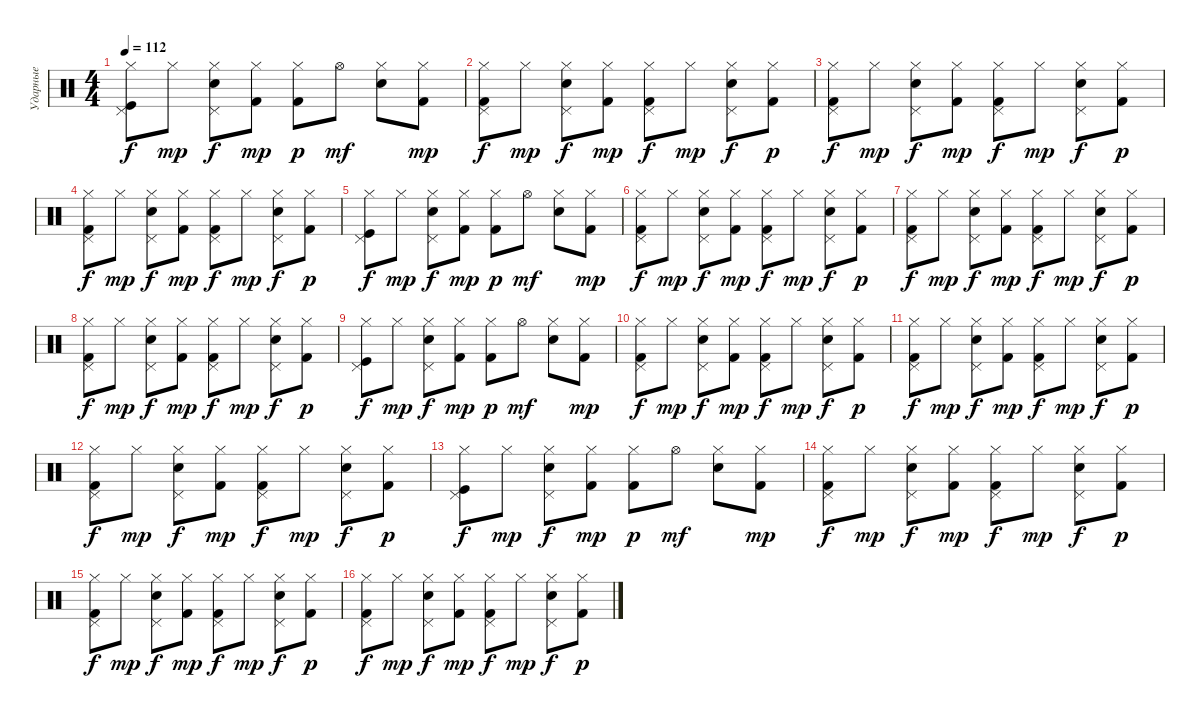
\track ("Ударные" "Ударные") {instrument percussion}
\staff {score}
\articulation defaults
\ts (4 4)
\tempo 112
\clef neutral
\ks c
("Pedal Hi-Hat (hit)" "Hi-Hat (closed)" "Kick (hit)").8{dy f} "Hi-Hat (closed)".8{dy mp} ("Pedal Hi-Hat (hit)" "Hi-Hat (closed)" "Electric Snare (hit)").8{dy f} ("Hi-Hat (closed)" "Kick (hit) 2").8{dy mp} ("Hi-Hat (closed)" "Kick (hit) 2").8{dy p} "Hi-Hat (open)".8{dy mf} ("Hi-Hat (closed)" "Electric Snare (hit)").8 ("Hi-Hat (closed)" "Kick (hit) 2").8{dy mp} |
("Pedal Hi-Hat (hit)" "Hi-Hat (closed)" "Kick (hit) 2").8{dy f} "Hi-Hat (closed)".8{dy mp} ("Pedal Hi-Hat (hit)" "Hi-Hat (closed)" "Electric Snare (hit)").8{dy f} ("Hi-Hat (closed)" "Kick (hit) 2").8{dy mp} ("Pedal Hi-Hat (hit)" "Hi-Hat (closed)" "Kick (hit) 2").8{dy f} "Hi-Hat (closed)".8{dy mp} ("Pedal Hi-Hat (hit)" "Hi-Hat (closed)" "Electric Snare (hit)").8{dy f} ("Hi-Hat (closed)" "Kick (hit) 2").8{dy p} |
("Pedal Hi-Hat (hit)" "Hi-Hat (closed)" "Kick (hit) 2").8{dy f} "Hi-Hat (closed)".8{dy mp} ("Pedal Hi-Hat (hit)" "Hi-Hat (closed)" "Electric Snare (hit)").8{dy f} ("Hi-Hat (closed)" "Kick (hit) 2").8{dy mp} ("Pedal Hi-Hat (hit)" "Hi-Hat (closed)" "Kick (hit) 2").8{dy f} "Hi-Hat (closed)".8{dy mp} ("Pedal Hi-Hat (hit)" "Hi-Hat (closed)" "Electric Snare (hit)").8{dy f} ("Hi-Hat (closed)" "Kick (hit) 2").8{dy p} |
("Pedal Hi-Hat (hit)" "Hi-Hat (closed)" "Kick (hit) 2").8{dy f} "Hi-Hat (closed)".8{dy mp} ("Pedal Hi-Hat (hit)" "Hi-Hat (closed)" "Electric Snare (hit)").8{dy f} ("Hi-Hat (closed)" "Kick (hit) 2").8{dy mp} ("Pedal Hi-Hat (hit)" "Hi-Hat (closed)" "Kick (hit) 2").8{dy f} "Hi-Hat (closed)".8{dy mp} ("Pedal Hi-Hat (hit)" "Hi-Hat (closed)" "Electric Snare (hit)").8{dy f} ("Hi-Hat (closed)" "Kick (hit) 2").8{dy p} |
("Pedal Hi-Hat (hit)" "Hi-Hat (closed)" "Kick (hit)").8{dy f} "Hi-Hat (closed)".8{dy mp} ("Pedal Hi-Hat (hit)" "Hi-Hat (closed)" "Electric Snare (hit)").8{dy f} ("Hi-Hat (closed)" "Kick (hit) 2").8{dy mp} ("Hi-Hat (closed)" "Kick (hit) 2").8{dy p} "Hi-Hat (open)".8{dy mf} ("Hi-Hat (closed)" "Electric Snare (hit)").8 ("Hi-Hat (closed)" "Kick (hit) 2").8{dy mp} |
("Pedal Hi-Hat (hit)" "Hi-Hat (closed)" "Kick (hit) 2").8{dy f} "Hi-Hat (closed)".8{dy mp} ("Pedal Hi-Hat (hit)" "Hi-Hat (closed)" "Electric Snare (hit)").8{dy f} ("Hi-Hat (closed)" "Kick (hit) 2").8{dy mp} ("Pedal Hi-Hat (hit)" "Hi-Hat (closed)" "Kick (hit) 2").8{dy f} "Hi-Hat (closed)".8{dy mp} ("Pedal Hi-Hat (hit)" "Hi-Hat (closed)" "Electric Snare (hit)").8{dy f} ("Hi-Hat (closed)" "Kick (hit) 2").8{dy p} |
("Pedal Hi-Hat (hit)" "Hi-Hat (closed)" "Kick (hit) 2").8{dy f} "Hi-Hat (closed)".8{dy mp} ("Pedal Hi-Hat (hit)" "Hi-Hat (closed)" "Electric Snare (hit)").8{dy f} ("Hi-Hat (closed)" "Kick (hit) 2").8{dy mp} ("Pedal Hi-Hat (hit)" "Hi-Hat (closed)" "Kick (hit) 2").8{dy f} "Hi-Hat (closed)".8{dy mp} ("Pedal Hi-Hat (hit)" "Hi-Hat (closed)" "Electric Snare (hit)").8{dy f} ("Hi-Hat (closed)" "Kick (hit) 2").8{dy p} |
("Pedal Hi-Hat (hit)" "Hi-Hat (closed)" "Kick (hit) 2").8{dy f} "Hi-Hat (closed)".8{dy mp} ("Pedal Hi-Hat (hit)" "Hi-Hat (closed)" "Electric Snare (hit)").8{dy f} ("Hi-Hat (closed)" "Kick (hit) 2").8{dy mp} ("Pedal Hi-Hat (hit)" "Hi-Hat (closed)" "Kick (hit) 2").8{dy f} "Hi-Hat (closed)".8{dy mp} ("Pedal Hi-Hat (hit)" "Hi-Hat (closed)" "Electric Snare (hit)").8{dy f} ("Hi-Hat (closed)" "Kick (hit) 2").8{dy p} |
("Pedal Hi-Hat (hit)" "Hi-Hat (closed)" "Kick (hit)").8{dy f} "Hi-Hat (closed)".8{dy mp} ("Pedal Hi-Hat (hit)" "Hi-Hat (closed)" "Electric Snare (hit)").8{dy f} ("Hi-Hat (closed)" "Kick (hit) 2").8{dy mp} ("Hi-Hat (closed)" "Kick (hit) 2").8{dy p} "Hi-Hat (open)".8{dy mf} ("Hi-Hat (closed)" "Electric Snare (hit)").8 ("Hi-Hat (closed)" "Kick (hit) 2").8{dy mp} |
("Pedal Hi-Hat (hit)" "Hi-Hat (closed)" "Kick (hit) 2").8{dy f} "Hi-Hat (closed)".8{dy mp} ("Pedal Hi-Hat (hit)" "Hi-Hat (closed)" "Electric Snare (hit)").8{dy f} ("Hi-Hat (closed)" "Kick (hit) 2").8{dy mp} ("Pedal Hi-Hat (hit)" "Hi-Hat (closed)" "Kick (hit) 2").8{dy f} "Hi-Hat (closed)".8{dy mp} ("Pedal Hi-Hat (hit)" "Hi-Hat (closed)" "Electric Snare (hit)").8{dy f} ("Hi-Hat (closed)" "Kick (hit) 2").8{dy p} |
("Pedal Hi-Hat (hit)" "Hi-Hat (closed)" "Kick (hit) 2").8{dy f} "Hi-Hat (closed)".8{dy mp} ("Pedal Hi-Hat (hit)" "Hi-Hat (closed)" "Electric Snare (hit)").8{dy f} ("Hi-Hat (closed)" "Kick (hit) 2").8{dy mp} ("Pedal Hi-Hat (hit)" "Hi-Hat (closed)" "Kick (hit) 2").8{dy f} "Hi-Hat (closed)".8{dy mp} ("Pedal Hi-Hat (hit)" "Hi-Hat (closed)" "Electric Snare (hit)").8{dy f} ("Hi-Hat (closed)" "Kick (hit) 2").8{dy p} |
("Pedal Hi-Hat (hit)" "Hi-Hat (closed)" "Kick (hit) 2").8{dy f} "Hi-Hat (closed)".8{dy mp} ("Pedal Hi-Hat (hit)" "Hi-Hat (closed)" "Electric Snare (hit)").8{dy f} ("Hi-Hat (closed)" "Kick (hit) 2").8{dy mp} ("Pedal Hi-Hat (hit)" "Hi-Hat (closed)" "Kick (hit) 2").8{dy f} "Hi-Hat (closed)".8{dy mp} ("Pedal Hi-Hat (hit)" "Hi-Hat (closed)" "Electric Snare (hit)").8{dy f} ("Hi-Hat (closed)" "Kick (hit) 2").8{dy p} |
("Pedal Hi-Hat (hit)" "Hi-Hat (closed)" "Kick (hit)").8{dy f} "Hi-Hat (closed)".8{dy mp} ("Pedal Hi-Hat (hit)" "Hi-Hat (closed)" "Electric Snare (hit)").8{dy f} ("Hi-Hat (closed)" "Kick (hit) 2").8{dy mp} ("Hi-Hat (closed)" "Kick (hit) 2").8{dy p} "Hi-Hat (open)".8{dy mf} ("Hi-Hat (closed)" "Electric Snare (hit)").8 ("Hi-Hat (closed)" "Kick (hit) 2").8{dy mp} |
("Pedal Hi-Hat (hit)" "Hi-Hat (closed)" "Kick (hit) 2").8{dy f} "Hi-Hat (closed)".8{dy mp} ("Pedal Hi-Hat (hit)" "Hi-Hat (closed)" "Electric Snare (hit)").8{dy f} ("Hi-Hat (closed)" "Kick (hit) 2").8{dy mp} ("Pedal Hi-Hat (hit)" "Hi-Hat (closed)" "Kick (hit) 2").8{dy f} "Hi-Hat (closed)".8{dy mp} ("Pedal Hi-Hat (hit)" "Hi-Hat (closed)" "Electric Snare (hit)").8{dy f} ("Hi-Hat (closed)" "Kick (hit) 2").8{dy p} |
("Pedal Hi-Hat (hit)" "Hi-Hat (closed)" "Kick (hit) 2").8{dy f} "Hi-Hat (closed)".8{dy mp} ("Pedal Hi-Hat (hit)" "Hi-Hat (closed)" "Electric Snare (hit)").8{dy f} ("Hi-Hat (closed)" "Kick (hit) 2").8{dy mp} ("Pedal Hi-Hat (hit)" "Hi-Hat (closed)" "Kick (hit) 2").8{dy f} "Hi-Hat (closed)".8{dy mp} ("Pedal Hi-Hat (hit)" "Hi-Hat (closed)" "Electric Snare (hit)").8{dy f} ("Hi-Hat (closed)" "Kick (hit) 2").8{dy p} |
("Pedal Hi-Hat (hit)" "Hi-Hat (closed)" "Kick (hit) 2").8{dy f} "Hi-Hat (closed)".8{dy mp} ("Pedal Hi-Hat (hit)" "Hi-Hat (closed)" "Electric Snare (hit)").8{dy f} ("Hi-Hat (closed)" "Kick (hit) 2").8{dy mp} ("Pedal Hi-Hat (hit)" "Hi-Hat (closed)" "Kick (hit) 2").8{dy f} "Hi-Hat (closed)".8{dy mp} ("Pedal Hi-Hat (hit)" "Hi-Hat (closed)" "Electric Snare (hit)").8{dy f} ("Hi-Hat (closed)" "Kick (hit) 2").8{dy p}
